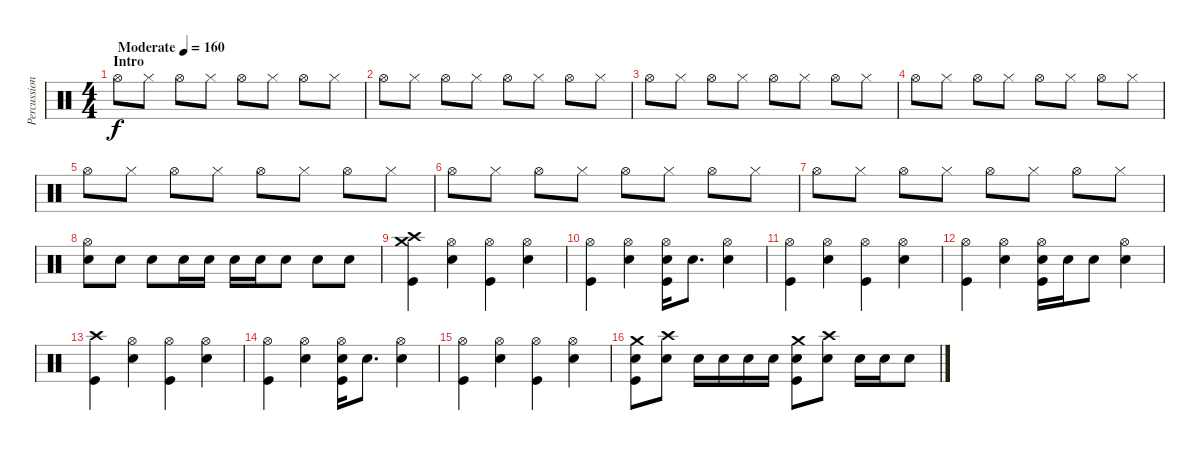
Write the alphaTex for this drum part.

\track ("Percussion" "Percussion") {instrument percussion}
\staff {score}
\articulation defaults
\ts (4 4)
\section ("" "Intro")
\tempo (160 "Moderate")
\clef neutral
\ks c "Hi-Hat (open)".8{dy f} "Hi-Hat (closed)".8 "Hi-Hat (open)".8 "Hi-Hat (closed)".8 "Hi-Hat (open)".8 "Hi-Hat (closed)".8 "Hi-Hat (open)".8 "Hi-Hat (closed)".8
|
"Hi-Hat (open)".8 "Hi-Hat (closed)".8 "Hi-Hat (open)".8 "Hi-Hat (closed)".8 "Hi-Hat (open)".8 "Hi-Hat (closed)".8 "Hi-Hat (open)".8 "Hi-Hat (closed)".8 |
"Hi-Hat (open)".8 "Hi-Hat (closed)".8 "Hi-Hat (open)".8 "Hi-Hat (closed)".8 "Hi-Hat (open)".8 "Hi-Hat (closed)".8 "Hi-Hat (open)".8 "Hi-Hat (closed)".8 |
"Hi-Hat (open)".8 "Hi-Hat (closed)".8 "Hi-Hat (open)".8 "Hi-Hat (closed)".8 "Hi-Hat (open)".8 "Hi-Hat (closed)".8 "Hi-Hat (open)".8 "Hi-Hat (closed)".8 |
"Hi-Hat (open)".8 "Hi-Hat (closed)".8 "Hi-Hat (open)".8 "Hi-Hat (closed)".8 "Hi-Hat (open)".8 "Hi-Hat (closed)".8 "Hi-Hat (open)".8 "Hi-Hat (closed)".8 |
"Hi-Hat (open)".8 "Hi-Hat (closed)".8 "Hi-Hat (open)".8 "Hi-Hat (closed)".8 "Hi-Hat (open)".8 "Hi-Hat (closed)".8 "Hi-Hat (open)".8 "Hi-Hat (closed)".8 |
"Hi-Hat (open)".8 "Hi-Hat (closed)".8 "Hi-Hat (open)".8 "Hi-Hat (closed)".8 "Hi-Hat (open)".8 "Hi-Hat (closed)".8 "Hi-Hat (open)".8 "Hi-Hat (closed)".8 |
("Hi-Hat (open)" "Electric Snare (hit)").8 "Electric Snare (hit)".8 "Electric Snare (hit)".8 "Electric Snare (hit)".16 "Electric Snare (hit)".16 "Electric Snare (hit)".16 "Electric Snare (hit)".16 "Electric Snare (hit)".8 "Electric Snare (hit)".8 "Electric Snare (hit)".8 |
("Crash high (hit)" "Crash medium (hit)" "Kick (hit)").4 ("Hi-Hat (open)" "Electric Snare (hit)").4 ("Hi-Hat (open)" "Kick (hit)").4 ("Hi-Hat (open)" "Electric Snare (hit)").4 |
("Hi-Hat (open)" "Kick (hit)").4 ("Hi-Hat (open)" "Electric Snare (hit)").4 ("Hi-Hat (open)" "Electric Snare (hit)" "Kick (hit)").16 "Electric Snare (hit)".8{d} ("Hi-Hat (open)" "Electric Snare (hit)").4 |
("Hi-Hat (open)" "Kick (hit)").4 ("Hi-Hat (open)" "Electric Snare (hit)").4 ("Hi-Hat (open)" "Kick (hit)").4 ("Hi-Hat (open)" "Electric Snare (hit)").4 |
("Hi-Hat (open)" "Kick (hit)").4 ("Hi-Hat (open)" "Electric Snare (hit)").4 ("Hi-Hat (open)" "Electric Snare (hit)" "Kick (hit)").16 "Electric Snare (hit)".16 "Electric Snare (hit)".8 ("Hi-Hat (open)" "Electric Snare (hit)").4 |
("Crash high (hit)" "Kick (hit)").4 ("Hi-Hat (open)" "Electric Snare (hit)").4 ("Hi-Hat (open)" "Kick (hit)").4 ("Hi-Hat (open)" "Electric Snare (hit)").4 |
("Hi-Hat (open)" "Kick (hit)").4 ("Hi-Hat (open)" "Electric Snare (hit)").4 ("Hi-Hat (open)" "Electric Snare (hit)" "Kick (hit)").16 "Electric Snare (hit)".8{d} ("Hi-Hat (open)" "Electric Snare (hit)").4 |
("Hi-Hat (open)" "Kick (hit)").4 ("Hi-Hat (open)" "Electric Snare (hit)").4 ("Hi-Hat (open)" "Kick (hit)").4 ("Hi-Hat (open)" "Electric Snare (hit)").4 |
("Crash medium (hit)" "Electric Snare (hit)" "Kick (hit)").8 ("Crash high (hit)" "Electric Snare (hit)").8 "Electric Snare (hit)".16 "Electric Snare (hit)".16 "Electric Snare (hit)".16 "Electric Snare (hit)".16 ("Crash medium (hit)" "Electric Snare (hit)" "Kick (hit)").8 ("Crash high (hit)" "Electric Snare (hit)").8 "Electric Snare (hit)".16 "Electric Snare (hit)".16 "Electric Snare (hit)".8
